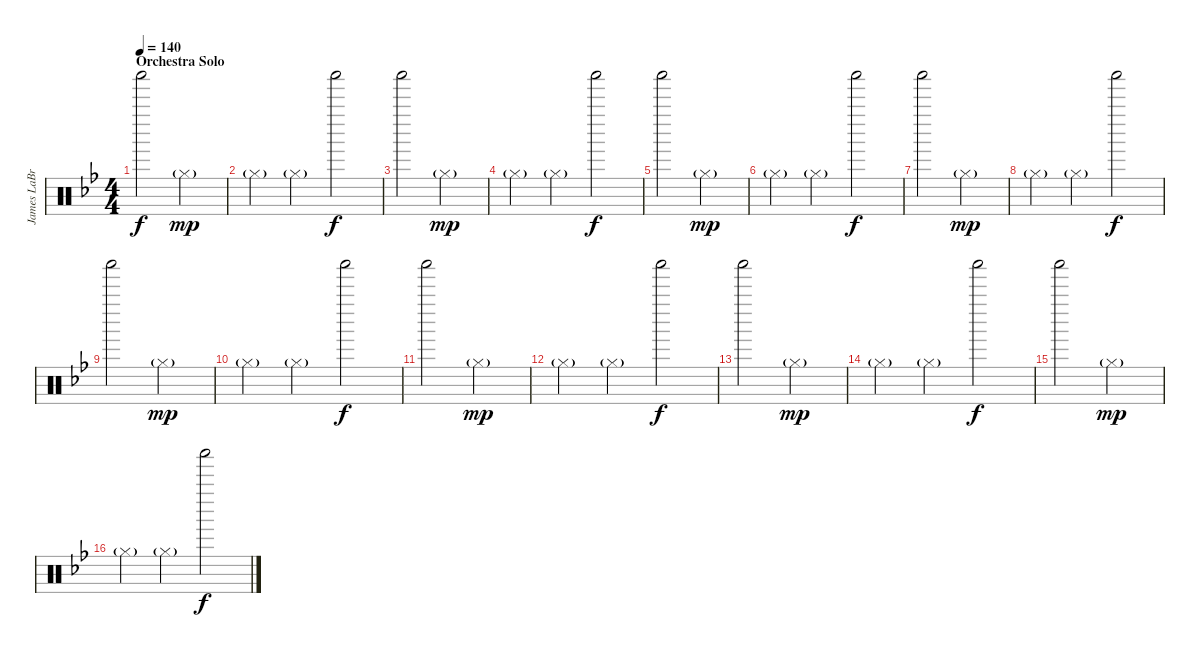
\track ("James LaBrie Percussion" "James LaBr") {instrument percussion}
\staff {score}
\articulation defaults
\ts (4 4)
\section ("" "Orchestra Solo")
\tempo 140
\clef neutral
\ks bb "Shaker (hit)".2{dy f} "Hi-Hat (closed)"{g}.2{dy mp}
|
"Hi-Hat (closed)"{g}.4 "Hi-Hat (closed)"{g}.4 "Shaker (hit)".2{dy f} |
"Shaker (hit)".2 "Hi-Hat (closed)"{g}.2{dy mp} |
"Hi-Hat (closed)"{g}.4 "Hi-Hat (closed)"{g}.4 "Shaker (hit)".2{dy f} |
"Shaker (hit)".2 "Hi-Hat (closed)"{g}.2{dy mp} |
"Hi-Hat (closed)"{g}.4 "Hi-Hat (closed)"{g}.4 "Shaker (hit)".2{dy f} |
"Shaker (hit)".2 "Hi-Hat (closed)"{g}.2{dy mp} |
"Hi-Hat (closed)"{g}.4 "Hi-Hat (closed)"{g}.4 "Shaker (hit)".2{dy f} |
"Shaker (hit)".2 "Hi-Hat (closed)"{g}.2{dy mp} |
"Hi-Hat (closed)"{g}.4 "Hi-Hat (closed)"{g}.4 "Shaker (hit)".2{dy f} |
"Shaker (hit)".2 "Hi-Hat (closed)"{g}.2{dy mp} |
"Hi-Hat (closed)"{g}.4 "Hi-Hat (closed)"{g}.4 "Shaker (hit)".2{dy f} |
"Shaker (hit)".2 "Hi-Hat (closed)"{g}.2{dy mp} |
"Hi-Hat (closed)"{g}.4 "Hi-Hat (closed)"{g}.4 "Shaker (hit)".2{dy f} |
"Shaker (hit)".2 "Hi-Hat (closed)"{g}.2{dy mp} |
"Hi-Hat (closed)"{g}.4 "Hi-Hat (closed)"{g}.4 "Shaker (hit)".2{dy f}
